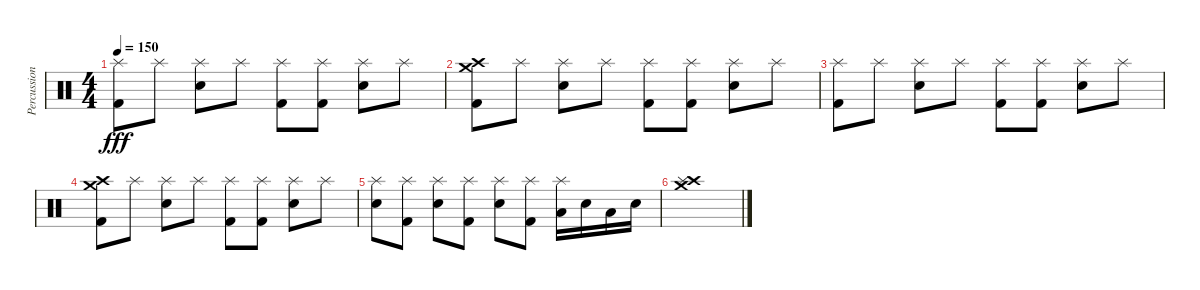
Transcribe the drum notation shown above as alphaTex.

\track ("Percussion" "Percussion") {instrument percussion}
\staff {score}
\articulation defaults
\ts (4 4)
\tempo 150
\clef neutral
\ks c
("Splash (hit)" "Kick (hit) 2").8{dy fff} "Splash (hit)".8 ("Splash (hit)" "Electric Snare (hit)").8 "Splash (hit)".8 ("Splash (hit)" "Kick (hit) 2").8 ("Splash (hit)" "Kick (hit) 2").8 ("Splash (hit)" "Electric Snare (hit)").8 "Splash (hit)".8 |
("Crash high (hit)" "Kick (hit) 2" "Crash medium (hit)").8 "Splash (hit)".8 ("Splash (hit)" "Electric Snare (hit)").8 "Splash (hit)".8 ("Splash (hit)" "Kick (hit) 2").8 ("Splash (hit)" "Kick (hit) 2").8 ("Splash (hit)" "Electric Snare (hit)").8 "Splash (hit)".8 |
("Splash (hit)" "Kick (hit) 2").8 "Splash (hit)".8 ("Splash (hit)" "Electric Snare (hit)").8 "Splash (hit)".8 ("Splash (hit)" "Kick (hit) 2").8 ("Splash (hit)" "Kick (hit) 2").8 ("Splash (hit)" "Electric Snare (hit)").8 "Splash (hit)".8 |
("Crash high (hit)" "Kick (hit) 2" "Crash medium (hit)").8 "Splash (hit)".8 ("Splash (hit)" "Electric Snare (hit)").8 "Splash (hit)".8 ("Splash (hit)" "Kick (hit) 2").8 ("Splash (hit)" "Kick (hit) 2").8 ("Splash (hit)" "Electric Snare (hit)").8 "Splash (hit)".8 |
("Splash (hit)" "Electric Snare (hit)").8 ("Splash (hit)" "Kick (hit) 2").8 ("Splash (hit)" "Electric Snare (hit)").8 ("Splash (hit)" "Kick (hit) 2").8 ("Splash (hit)" "Electric Snare (hit)").8 ("Splash (hit)" "Kick (hit) 2").8 ("Splash (hit)" "Low Floor Tom (hit)").16 "Electric Snare (hit)".16 "Low Floor Tom (hit)".16 "Electric Snare (hit)".16 |
("Crash high (hit)" "Crash medium (hit)" "Splash (hit)").1
